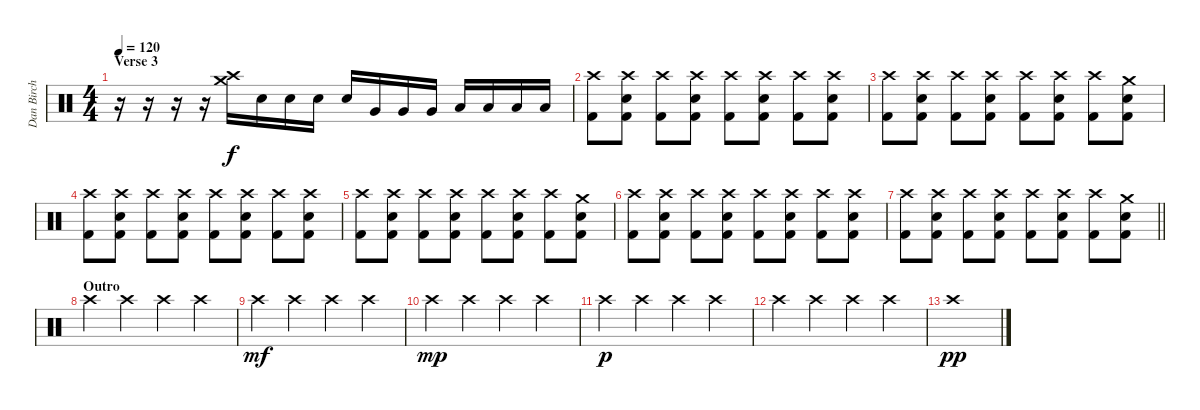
\track ("Dan Birch" "Dan Birch") {instrument percussion}
\staff {score}
\articulation defaults
\ts (4 4)
\section ("" "Verse 3")
\tempo 120
\clef neutral
\ks c
r.16{dy f} r.16 r.16 r.16 ("Crash high (hit)" "Crash medium (hit)").16 "Snare (hit) 2".16 "Snare (hit) 2".16 "Snare (hit) 2".16 "Snare (hit) 2".16 "Very Low Tom (hit)".16 "Very Low Tom (hit)".16 "Very Low Tom (hit)".16 "Low Tom (hit)".16 "Low Tom (hit)".16 "Low Tom (hit)".16 "Low Floor Tom (hit)".16 |
("Crash high (hit)" "Kick (hit) 2").8 ("Crash high (hit)" "Snare (hit) 2" "Kick (hit) 2").8 ("Crash high (hit)" "Kick (hit) 2").8 ("Crash high (hit)" "Snare (hit) 2" "Kick (hit) 2").8 ("Crash high (hit)" "Kick (hit) 2").8 ("Crash high (hit)" "Snare (hit) 2" "Kick (hit) 2").8 ("Crash high (hit)" "Kick (hit) 2").8 ("Crash high (hit)" "Snare (hit) 2" "Kick (hit) 2").8 |
("Crash high (hit)" "Kick (hit) 2").8 ("Crash high (hit)" "Snare (hit) 2" "Kick (hit) 2").8 ("Crash high (hit)" "Kick (hit) 2").8 ("Crash high (hit)" "Snare (hit) 2" "Kick (hit) 2").8 ("Crash high (hit)" "Kick (hit) 2").8 ("Crash high (hit)" "Snare (hit) 2" "Kick (hit) 2").8 ("Crash high (hit)" "Kick (hit) 2").8 ("Crash medium (hit)" "Snare (hit) 2" "Kick (hit) 2").8 |
("Crash high (hit)" "Kick (hit) 2").8 ("Crash high (hit)" "Snare (hit) 2" "Kick (hit) 2").8 ("Crash high (hit)" "Kick (hit) 2").8 ("Crash high (hit)" "Snare (hit) 2" "Kick (hit) 2").8 ("Crash high (hit)" "Kick (hit) 2").8 ("Crash high (hit)" "Snare (hit) 2" "Kick (hit) 2").8 ("Crash high (hit)" "Kick (hit) 2").8 ("Crash high (hit)" "Snare (hit) 2" "Kick (hit) 2").8 |
("Crash high (hit)" "Kick (hit) 2").8 ("Crash high (hit)" "Snare (hit) 2" "Kick (hit) 2").8 ("Crash high (hit)" "Kick (hit) 2").8 ("Crash high (hit)" "Snare (hit) 2" "Kick (hit) 2").8 ("Crash high (hit)" "Kick (hit) 2").8 ("Crash high (hit)" "Snare (hit) 2" "Kick (hit) 2").8 ("Crash high (hit)" "Kick (hit) 2").8 ("Crash medium (hit)" "Snare (hit) 2" "Kick (hit) 2").8 |
("Crash high (hit)" "Kick (hit) 2").8 ("Crash high (hit)" "Snare (hit) 2" "Kick (hit) 2").8 ("Crash high (hit)" "Kick (hit) 2").8 ("Crash high (hit)" "Snare (hit) 2" "Kick (hit) 2").8 ("Crash high (hit)" "Kick (hit) 2").8 ("Crash high (hit)" "Snare (hit) 2" "Kick (hit) 2").8 ("Crash high (hit)" "Kick (hit) 2").8 ("Crash high (hit)" "Snare (hit) 2" "Kick (hit) 2").8 |
\barLineRight lightlight
("Crash high (hit)" "Kick (hit) 2").8 ("Crash high (hit)" "Snare (hit) 2" "Kick (hit) 2").8 ("Crash high (hit)" "Kick (hit) 2").8 ("Crash high (hit)" "Snare (hit) 2" "Kick (hit) 2").8 ("Crash high (hit)" "Kick (hit) 2").8 ("Crash high (hit)" "Snare (hit) 2" "Kick (hit) 2").8 ("Crash high (hit)" "Kick (hit) 2").8 ("Crash medium (hit)" "Snare (hit) 2" "Kick (hit) 2").8 |
\section ("" "Outro")
"Crash high (hit)".4 "Crash high (hit)".4 "Crash high (hit)".4 "Crash high (hit)".4 |
"Crash high (hit)".4{dy mf} "Crash high (hit)".4 "Crash high (hit)".4 "Crash high (hit)".4 |
"Crash high (hit)".4{dy mp} "Crash high (hit)".4 "Crash high (hit)".4 "Crash high (hit)".4 |
"Crash high (hit)".4{dy p} "Crash high (hit)".4 "Crash high (hit)".4 "Crash high (hit)".4 |
"Crash high (hit)".4 "Crash high (hit)".4 "Crash high (hit)".4 "Crash high (hit)".4 |
"Crash high (hit)".1{dy pp}
